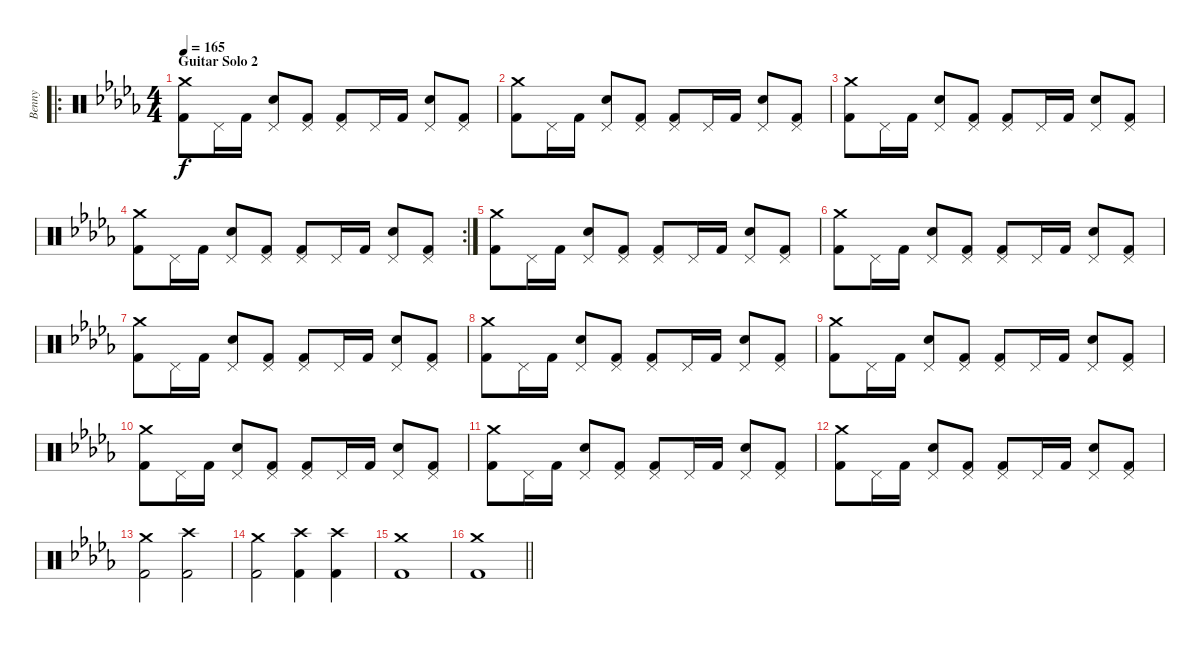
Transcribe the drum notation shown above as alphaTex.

\track ("Benny" "Benny") {instrument percussion}
\staff {score}
\articulation defaults
\ro
\ts (4 4)
\section ("" "Guitar Solo 2")
\tempo 165
\clef neutral
\ks db
("Crash medium (hit)" "Kick (hit) 2").8{dy f} "Pedal Hi-Hat (hit)".16 "Kick (hit) 2".16 ("Pedal Hi-Hat (hit)" "Snare (hit) 2").8 ("Pedal Hi-Hat (hit)" "Kick (hit) 2").8 ("Pedal Hi-Hat (hit)" "Kick (hit) 2").8 "Pedal Hi-Hat (hit)".16 "Kick (hit) 2".16 ("Pedal Hi-Hat (hit)" "Snare (hit) 2").8 ("Pedal Hi-Hat (hit)" "Kick (hit) 2").8 |
("Crash medium (hit)" "Kick (hit) 2").8 "Pedal Hi-Hat (hit)".16 "Kick (hit) 2".16 ("Pedal Hi-Hat (hit)" "Snare (hit) 2").8 ("Pedal Hi-Hat (hit)" "Kick (hit) 2").8 ("Pedal Hi-Hat (hit)" "Kick (hit) 2").8 "Pedal Hi-Hat (hit)".16 "Kick (hit) 2".16 ("Pedal Hi-Hat (hit)" "Snare (hit) 2").8 ("Pedal Hi-Hat (hit)" "Kick (hit) 2").8 |
("Crash medium (hit)" "Kick (hit) 2").8 "Pedal Hi-Hat (hit)".16 "Kick (hit) 2".16 ("Pedal Hi-Hat (hit)" "Snare (hit) 2").8 ("Pedal Hi-Hat (hit)" "Kick (hit) 2").8 ("Pedal Hi-Hat (hit)" "Kick (hit) 2").8 "Pedal Hi-Hat (hit)".16 "Kick (hit) 2".16 ("Pedal Hi-Hat (hit)" "Snare (hit) 2").8 ("Pedal Hi-Hat (hit)" "Kick (hit) 2").8 |
\rc 2
("Crash medium (hit)" "Kick (hit) 2").8 "Pedal Hi-Hat (hit)".16 "Kick (hit) 2".16 ("Pedal Hi-Hat (hit)" "Snare (hit) 2").8 ("Pedal Hi-Hat (hit)" "Kick (hit) 2").8 ("Pedal Hi-Hat (hit)" "Kick (hit) 2").8 "Pedal Hi-Hat (hit)".16 "Kick (hit) 2".16 ("Pedal Hi-Hat (hit)" "Snare (hit) 2").8 ("Pedal Hi-Hat (hit)" "Kick (hit) 2").8 |
("Crash medium (hit)" "Kick (hit) 2").8 "Pedal Hi-Hat (hit)".16 "Kick (hit) 2".16 ("Pedal Hi-Hat (hit)" "Snare (hit) 2").8 ("Pedal Hi-Hat (hit)" "Kick (hit) 2").8 ("Pedal Hi-Hat (hit)" "Kick (hit) 2").8 "Pedal Hi-Hat (hit)".16 "Kick (hit) 2".16 ("Pedal Hi-Hat (hit)" "Snare (hit) 2").8 ("Pedal Hi-Hat (hit)" "Kick (hit) 2").8 |
("Crash medium (hit)" "Kick (hit) 2").8 "Pedal Hi-Hat (hit)".16 "Kick (hit) 2".16 ("Pedal Hi-Hat (hit)" "Snare (hit) 2").8 ("Pedal Hi-Hat (hit)" "Kick (hit) 2").8 ("Pedal Hi-Hat (hit)" "Kick (hit) 2").8 "Pedal Hi-Hat (hit)".16 "Kick (hit) 2".16 ("Pedal Hi-Hat (hit)" "Snare (hit) 2").8 ("Pedal Hi-Hat (hit)" "Kick (hit) 2").8 |
("Crash medium (hit)" "Kick (hit) 2").8 "Pedal Hi-Hat (hit)".16 "Kick (hit) 2".16 ("Pedal Hi-Hat (hit)" "Snare (hit) 2").8 ("Pedal Hi-Hat (hit)" "Kick (hit) 2").8 ("Pedal Hi-Hat (hit)" "Kick (hit) 2").8 "Pedal Hi-Hat (hit)".16 "Kick (hit) 2".16 ("Pedal Hi-Hat (hit)" "Snare (hit) 2").8 ("Pedal Hi-Hat (hit)" "Kick (hit) 2").8 |
("Crash medium (hit)" "Kick (hit) 2").8 "Pedal Hi-Hat (hit)".16 "Kick (hit) 2".16 ("Pedal Hi-Hat (hit)" "Snare (hit) 2").8 ("Pedal Hi-Hat (hit)" "Kick (hit) 2").8 ("Pedal Hi-Hat (hit)" "Kick (hit) 2").8 "Pedal Hi-Hat (hit)".16 "Kick (hit) 2".16 ("Pedal Hi-Hat (hit)" "Snare (hit) 2").8 ("Pedal Hi-Hat (hit)" "Kick (hit) 2").8 |
("Crash medium (hit)" "Kick (hit) 2").8 "Pedal Hi-Hat (hit)".16 "Kick (hit) 2".16 ("Pedal Hi-Hat (hit)" "Snare (hit) 2").8 ("Pedal Hi-Hat (hit)" "Kick (hit) 2").8 ("Pedal Hi-Hat (hit)" "Kick (hit) 2").8 "Pedal Hi-Hat (hit)".16 "Kick (hit) 2".16 ("Pedal Hi-Hat (hit)" "Snare (hit) 2").8 ("Pedal Hi-Hat (hit)" "Kick (hit) 2").8 |
("Crash medium (hit)" "Kick (hit) 2").8 "Pedal Hi-Hat (hit)".16 "Kick (hit) 2".16 ("Pedal Hi-Hat (hit)" "Snare (hit) 2").8 ("Pedal Hi-Hat (hit)" "Kick (hit) 2").8 ("Pedal Hi-Hat (hit)" "Kick (hit) 2").8 "Pedal Hi-Hat (hit)".16 "Kick (hit) 2".16 ("Pedal Hi-Hat (hit)" "Snare (hit) 2").8 ("Pedal Hi-Hat (hit)" "Kick (hit) 2").8 |
("Crash medium (hit)" "Kick (hit) 2").8 "Pedal Hi-Hat (hit)".16 "Kick (hit) 2".16 ("Pedal Hi-Hat (hit)" "Snare (hit) 2").8 ("Pedal Hi-Hat (hit)" "Kick (hit) 2").8 ("Pedal Hi-Hat (hit)" "Kick (hit) 2").8 "Pedal Hi-Hat (hit)".16 "Kick (hit) 2".16 ("Pedal Hi-Hat (hit)" "Snare (hit) 2").8 ("Pedal Hi-Hat (hit)" "Kick (hit) 2").8 |
("Crash medium (hit)" "Kick (hit) 2").8 "Pedal Hi-Hat (hit)".16 "Kick (hit) 2".16 ("Pedal Hi-Hat (hit)" "Snare (hit) 2").8 ("Pedal Hi-Hat (hit)" "Kick (hit) 2").8 ("Pedal Hi-Hat (hit)" "Kick (hit) 2").8 "Pedal Hi-Hat (hit)".16 "Kick (hit) 2".16 ("Pedal Hi-Hat (hit)" "Snare (hit) 2").8 ("Pedal Hi-Hat (hit)" "Kick (hit) 2").8 |
("Crash medium (hit)" "Kick (hit) 2").2 ("Crash high (hit)" "Kick (hit) 2").2 |
("Crash medium (hit)" "Kick (hit) 2").2 ("Crash high (hit)" "Kick (hit) 2").4 ("Crash high (hit)" "Kick (hit) 2").4 |
("Crash medium (hit)" "Kick (hit) 2").1 |
\barLineRight lightlight
("Crash medium (hit)" "Kick (hit) 2").1
